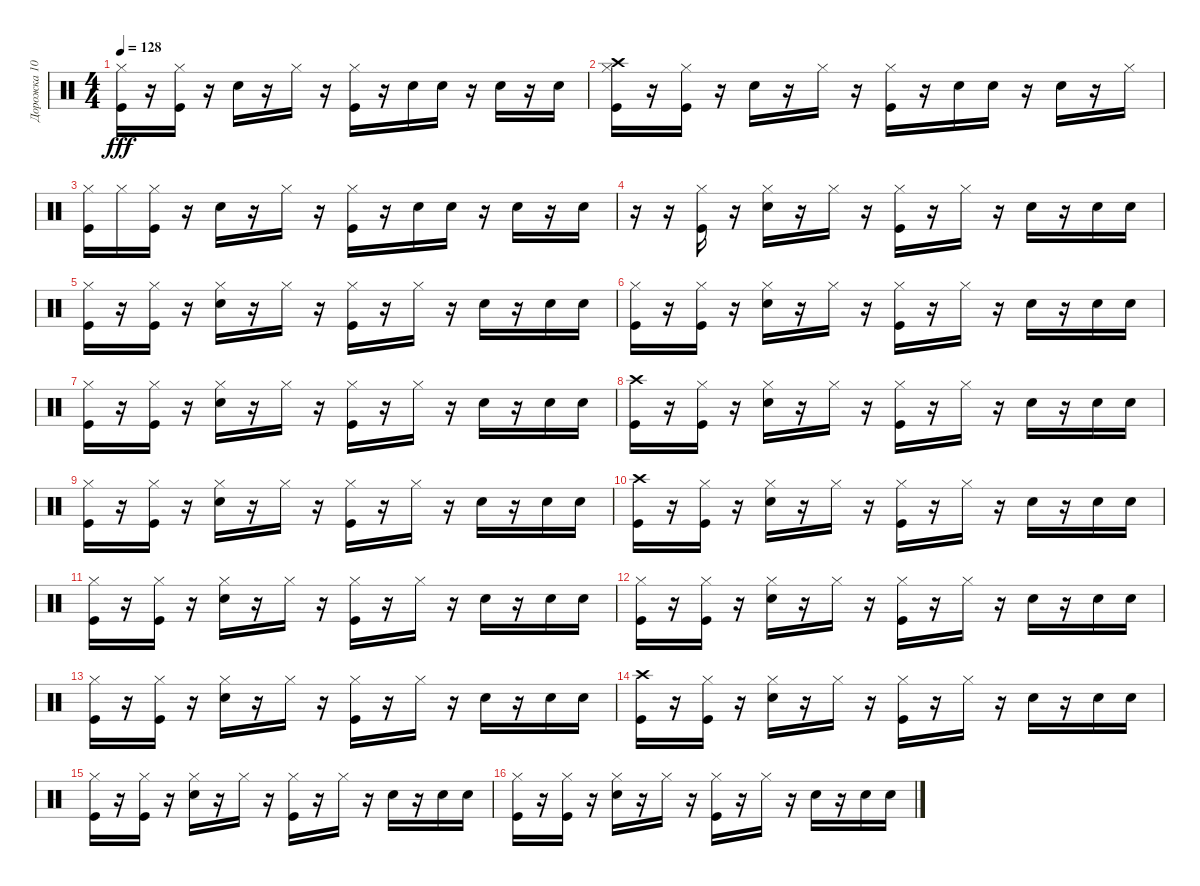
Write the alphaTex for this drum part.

\track ("Дорожка 10" "Дорожка 10") {instrument percussion}
\staff {score}
\articulation defaults
\ts (4 4)
\tempo 128
\clef neutral
\ks c
("Kick (hit)" "Hi-Hat (closed)").16{dy fff} r.16 ("Kick (hit)" "Hi-Hat (closed)").16 r.16 "Electric Snare (hit)".16 r.16 "Hi-Hat (closed)".16 r.16 ("Kick (hit)" "Hi-Hat (closed)").16 r.16 "Electric Snare (hit)".16 "Electric Snare (hit)".16 r.16 "Electric Snare (hit)".16 r.16 "Electric Snare (hit)".16 |
("Crash high (hit)" "Kick (hit)" "Hi-Hat (closed)").16 r.16 ("Kick (hit)" "Hi-Hat (closed)").16 r.16 "Electric Snare (hit)".16 r.16 "Hi-Hat (closed)".16 r.16 ("Kick (hit)" "Hi-Hat (closed)").16 r.16 "Electric Snare (hit)".16 "Electric Snare (hit)".16 r.16 "Electric Snare (hit)".16 r.16 "Hi-Hat (closed)".16 |
("Kick (hit)" "Hi-Hat (closed)").16 "Hi-Hat (closed)".16 ("Kick (hit)" "Hi-Hat (closed)").16 r.16 "Electric Snare (hit)".16 r.16 "Hi-Hat (closed)".16 r.16 ("Kick (hit)" "Hi-Hat (closed)").16 r.16 "Electric Snare (hit)".16 "Electric Snare (hit)".16 r.16 "Electric Snare (hit)".16 r.16 "Electric Snare (hit)".16 |
r.16 r.16 ("Hi-Hat (closed)" "Kick (hit)").16 r.16 ("Electric Snare (hit)" "Hi-Hat (closed)").16 r.16 "Hi-Hat (closed)".16 r.16 ("Kick (hit)" "Hi-Hat (closed)").16 r.16 "Hi-Hat (closed)".16 r.16 "Electric Snare (hit)".16 r.16 "Electric Snare (hit)".16 "Electric Snare (hit)".16 |
("Hi-Hat (closed)" "Kick (hit)").16 r.16 ("Hi-Hat (closed)" "Kick (hit)").16 r.16 ("Electric Snare (hit)" "Hi-Hat (closed)").16 r.16 "Hi-Hat (closed)".16 r.16 ("Kick (hit)" "Hi-Hat (closed)").16 r.16 "Hi-Hat (closed)".16 r.16 "Electric Snare (hit)".16 r.16 "Electric Snare (hit)".16 "Electric Snare (hit)".16 |
("Kick (hit)" "Hi-Hat (closed)").16 r.16 ("Hi-Hat (closed)" "Kick (hit)").16 r.16 ("Electric Snare (hit)" "Hi-Hat (closed)").16 r.16 "Hi-Hat (closed)".16 r.16 ("Kick (hit)" "Hi-Hat (closed)").16 r.16 "Hi-Hat (closed)".16 r.16 "Electric Snare (hit)".16 r.16 "Electric Snare (hit)".16 "Electric Snare (hit)".16 |
("Kick (hit)" "Hi-Hat (closed)").16 r.16 ("Hi-Hat (closed)" "Kick (hit)").16 r.16 ("Electric Snare (hit)" "Hi-Hat (closed)").16 r.16 "Hi-Hat (closed)".16 r.16 ("Kick (hit)" "Hi-Hat (closed)").16 r.16 "Hi-Hat (closed)".16 r.16 "Electric Snare (hit)".16 r.16 "Electric Snare (hit)".16 "Electric Snare (hit)".16 |
("Crash high (hit)" "Kick (hit)").16 r.16 ("Hi-Hat (closed)" "Kick (hit)").16 r.16 ("Electric Snare (hit)" "Hi-Hat (closed)").16 r.16 "Hi-Hat (closed)".16 r.16 ("Kick (hit)" "Hi-Hat (closed)").16 r.16 "Hi-Hat (closed)".16 r.16 "Electric Snare (hit)".16 r.16 "Electric Snare (hit)".16 "Electric Snare (hit)".16 |
("Kick (hit)" "Hi-Hat (closed)").16 r.16 ("Kick (hit)" "Hi-Hat (closed)").16 r.16 ("Electric Snare (hit)" "Hi-Hat (closed)").16 r.16 "Hi-Hat (closed)".16 r.16 ("Hi-Hat (closed)" "Kick (hit)").16 r.16 "Hi-Hat (closed)".16 r.16 "Electric Snare (hit)".16 r.16 "Electric Snare (hit)".16 "Electric Snare (hit)".16 |
("Crash high (hit)" "Kick (hit)").16 r.16 ("Hi-Hat (closed)" "Kick (hit)").16 r.16 ("Electric Snare (hit)" "Hi-Hat (closed)").16 r.16 "Hi-Hat (closed)".16 r.16 ("Hi-Hat (closed)" "Kick (hit)").16 r.16 "Hi-Hat (closed)".16 r.16 "Electric Snare (hit)".16 r.16 "Electric Snare (hit)".16 "Electric Snare (hit)".16 |
("Hi-Hat (closed)" "Kick (hit)").16 r.16 ("Hi-Hat (closed)" "Kick (hit)").16 r.16 ("Electric Snare (hit)" "Hi-Hat (closed)").16 r.16 "Hi-Hat (closed)".16 r.16 ("Hi-Hat (closed)" "Kick (hit)").16 r.16 "Hi-Hat (closed)".16 r.16 "Electric Snare (hit)".16 r.16 "Electric Snare (hit)".16 "Electric Snare (hit)".16 |
("Kick (hit)" "Hi-Hat (closed)").16 r.16 ("Hi-Hat (closed)" "Kick (hit)").16 r.16 ("Electric Snare (hit)" "Hi-Hat (closed)").16 r.16 "Hi-Hat (closed)".16 r.16 ("Kick (hit)" "Hi-Hat (closed)").16 r.16 "Hi-Hat (closed)".16 r.16 "Electric Snare (hit)".16 r.16 "Electric Snare (hit)".16 "Electric Snare (hit)".16 |
("Kick (hit)" "Hi-Hat (closed)").16 r.16 ("Kick (hit)" "Hi-Hat (closed)").16 r.16 ("Electric Snare (hit)" "Hi-Hat (closed)").16 r.16 "Hi-Hat (closed)".16 r.16 ("Hi-Hat (closed)" "Kick (hit)").16 r.16 "Hi-Hat (closed)".16 r.16 "Electric Snare (hit)".16 r.16 "Electric Snare (hit)".16 "Electric Snare (hit)".16 |
("Kick (hit)" "Crash high (hit)").16 r.16 ("Kick (hit)" "Hi-Hat (closed)").16 r.16 ("Electric Snare (hit)" "Hi-Hat (closed)").16 r.16 "Hi-Hat (closed)".16 r.16 ("Kick (hit)" "Hi-Hat (closed)").16 r.16 "Hi-Hat (closed)".16 r.16 "Electric Snare (hit)".16 r.16 "Electric Snare (hit)".16 "Electric Snare (hit)".16 |
("Kick (hit)" "Hi-Hat (closed)").16 r.16 ("Kick (hit)" "Hi-Hat (closed)").16 r.16 ("Electric Snare (hit)" "Hi-Hat (closed)").16 r.16 "Hi-Hat (closed)".16 r.16 ("Hi-Hat (closed)" "Kick (hit)").16 r.16 "Hi-Hat (closed)".16 r.16 "Electric Snare (hit)".16 r.16 "Electric Snare (hit)".16 "Electric Snare (hit)".16 |
("Hi-Hat (closed)" "Kick (hit)").16 r.16 ("Kick (hit)" "Hi-Hat (closed)").16 r.16 ("Electric Snare (hit)" "Hi-Hat (closed)").16 r.16 "Hi-Hat (closed)".16 r.16 ("Kick (hit)" "Hi-Hat (closed)").16 r.16 "Hi-Hat (closed)".16 r.16 "Electric Snare (hit)".16 r.16 "Electric Snare (hit)".16 "Electric Snare (hit)".16
